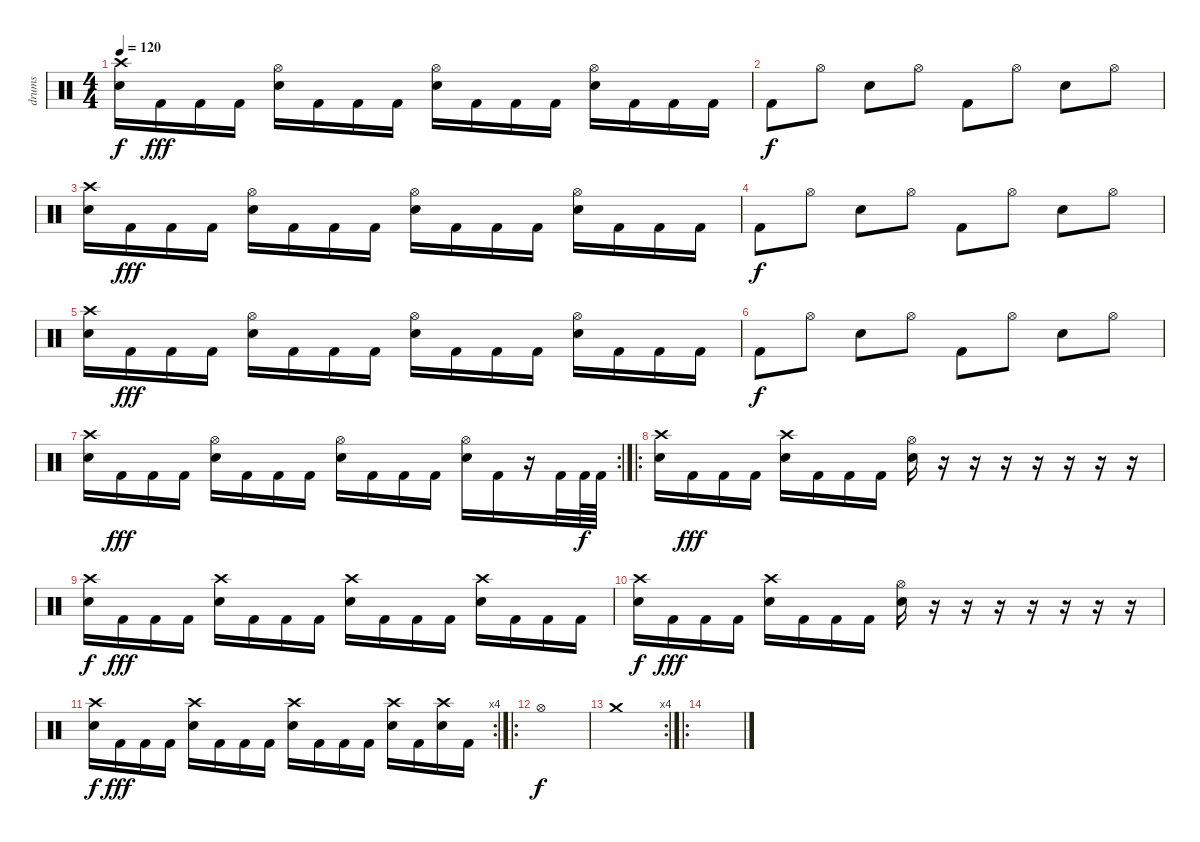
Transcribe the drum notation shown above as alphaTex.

\track ("drums" "drums") {instrument percussion}
\staff {score}
\articulation defaults
\ts (4 4)
\tempo 120
\clef neutral
\ks c
("Crash high (hit)" "Electric Snare (hit)").16{dy f} "Kick (hit) 2".16{dy fff} "Kick (hit) 2".16 "Kick (hit) 2".16 ("Hi-Hat (open)" "Electric Snare (hit)").16 "Kick (hit) 2".16 "Kick (hit) 2".16 "Kick (hit) 2".16 ("Hi-Hat (open)" "Electric Snare (hit)").16 "Kick (hit) 2".16 "Kick (hit) 2".16 "Kick (hit) 2".16 ("Hi-Hat (open)" "Electric Snare (hit)").16 "Kick (hit) 2".16 "Kick (hit) 2".16 "Kick (hit) 2".16 |
"Kick (hit) 2".8{dy f} "Hi-Hat (open)".8 "Snare (hit) 2".8 "Hi-Hat (open)".8 "Kick (hit) 2".8 "Hi-Hat (open)".8 "Snare (hit) 2".8 "Hi-Hat (open)".8 |
("Crash high (hit)" "Electric Snare (hit)").16 "Kick (hit) 2".16{dy fff} "Kick (hit) 2".16 "Kick (hit) 2".16 ("Hi-Hat (open)" "Electric Snare (hit)").16 "Kick (hit) 2".16 "Kick (hit) 2".16 "Kick (hit) 2".16 ("Hi-Hat (open)" "Electric Snare (hit)").16 "Kick (hit) 2".16 "Kick (hit) 2".16 "Kick (hit) 2".16 ("Hi-Hat (open)" "Electric Snare (hit)").16 "Kick (hit) 2".16 "Kick (hit) 2".16 "Kick (hit) 2".16 |
"Kick (hit) 2".8{dy f} "Hi-Hat (open)".8 "Snare (hit) 2".8 "Hi-Hat (open)".8 "Kick (hit) 2".8 "Hi-Hat (open)".8 "Snare (hit) 2".8 "Hi-Hat (open)".8 |
("Crash high (hit)" "Electric Snare (hit)").16 "Kick (hit) 2".16{dy fff} "Kick (hit) 2".16 "Kick (hit) 2".16 ("Hi-Hat (open)" "Electric Snare (hit)").16 "Kick (hit) 2".16 "Kick (hit) 2".16 "Kick (hit) 2".16 ("Hi-Hat (open)" "Electric Snare (hit)").16 "Kick (hit) 2".16 "Kick (hit) 2".16 "Kick (hit) 2".16 ("Hi-Hat (open)" "Electric Snare (hit)").16 "Kick (hit) 2".16 "Kick (hit) 2".16 "Kick (hit) 2".16 |
"Kick (hit) 2".8{dy f} "Hi-Hat (open)".8 "Snare (hit) 2".8 "Hi-Hat (open)".8 "Kick (hit) 2".8 "Hi-Hat (open)".8 "Snare (hit) 2".8 "Hi-Hat (open)".8 |
\rc 2
("Crash high (hit)" "Electric Snare (hit)").16 "Kick (hit) 2".16{dy fff} "Kick (hit) 2".16 "Kick (hit) 2".16 ("Hi-Hat (open)" "Electric Snare (hit)").16 "Kick (hit) 2".16 "Kick (hit) 2".16 "Kick (hit) 2".16 ("Hi-Hat (open)" "Electric Snare (hit)").16 "Kick (hit) 2".16 "Kick (hit) 2".16 "Kick (hit) 2".16 ("Hi-Hat (open)" "Electric Snare (hit)").16 "Kick (hit) 2".16 r.16 "Kick (hit) 2".32 "Kick (hit) 2".64{dy f} "Kick (hit) 2".64 |
\ro
("Crash high (hit)" "Electric Snare (hit)").16 "Kick (hit) 2".16{dy fff} "Kick (hit) 2".16 "Kick (hit) 2".16 ("Crash high (hit)" "Electric Snare (hit)").16 "Kick (hit) 2".16 "Kick (hit) 2".16 "Kick (hit) 2".16 ("Hi-Hat (open)" "Electric Snare (hit)").16 r.16 r.16 r.16 r.16 r.16 r.16 r.16 |
("Crash high (hit)" "Electric Snare (hit)").16{dy f} "Kick (hit) 2".16{dy fff} "Kick (hit) 2".16 "Kick (hit) 2".16 ("Crash high (hit)" "Electric Snare (hit)").16 "Kick (hit) 2".16 "Kick (hit) 2".16 "Kick (hit) 2".16 ("Crash high (hit)" "Electric Snare (hit)").16 "Kick (hit) 2".16 "Kick (hit) 2".16 "Kick (hit) 2".16 ("Crash high (hit)" "Electric Snare (hit)").16 "Kick (hit) 2".16 "Kick (hit) 2".16 "Kick (hit) 2".16 |
("Crash high (hit)" "Electric Snare (hit)").16{dy f} "Kick (hit) 2".16{dy fff} "Kick (hit) 2".16 "Kick (hit) 2".16 ("Crash high (hit)" "Electric Snare (hit)").16 "Kick (hit) 2".16 "Kick (hit) 2".16 "Kick (hit) 2".16 ("Hi-Hat (open)" "Electric Snare (hit)").16 r.16 r.16 r.16 r.16 r.16 r.16 r.16 |
\rc 4
("Crash high (hit)" "Electric Snare (hit)").16{dy f} "Kick (hit) 2".16{dy fff} "Kick (hit) 2".16 "Kick (hit) 2".16 ("Crash high (hit)" "Electric Snare (hit)").16 "Kick (hit) 2".16 "Kick (hit) 2".16 "Kick (hit) 2".16 ("Crash high (hit)" "Electric Snare (hit)").16 "Kick (hit) 2".16 "Kick (hit) 2".16 "Kick (hit) 2".16 ("Crash high (hit)" "Electric Snare (hit)").16 "Kick (hit) 2".16 ("Crash high (hit)" "Electric Snare (hit)").16 "Kick (hit) 2".16 |
\ro "Hi-Hat (open)".1{dy f}
|
\rc 4 "Crash medium (hit)".1
|
\ro
